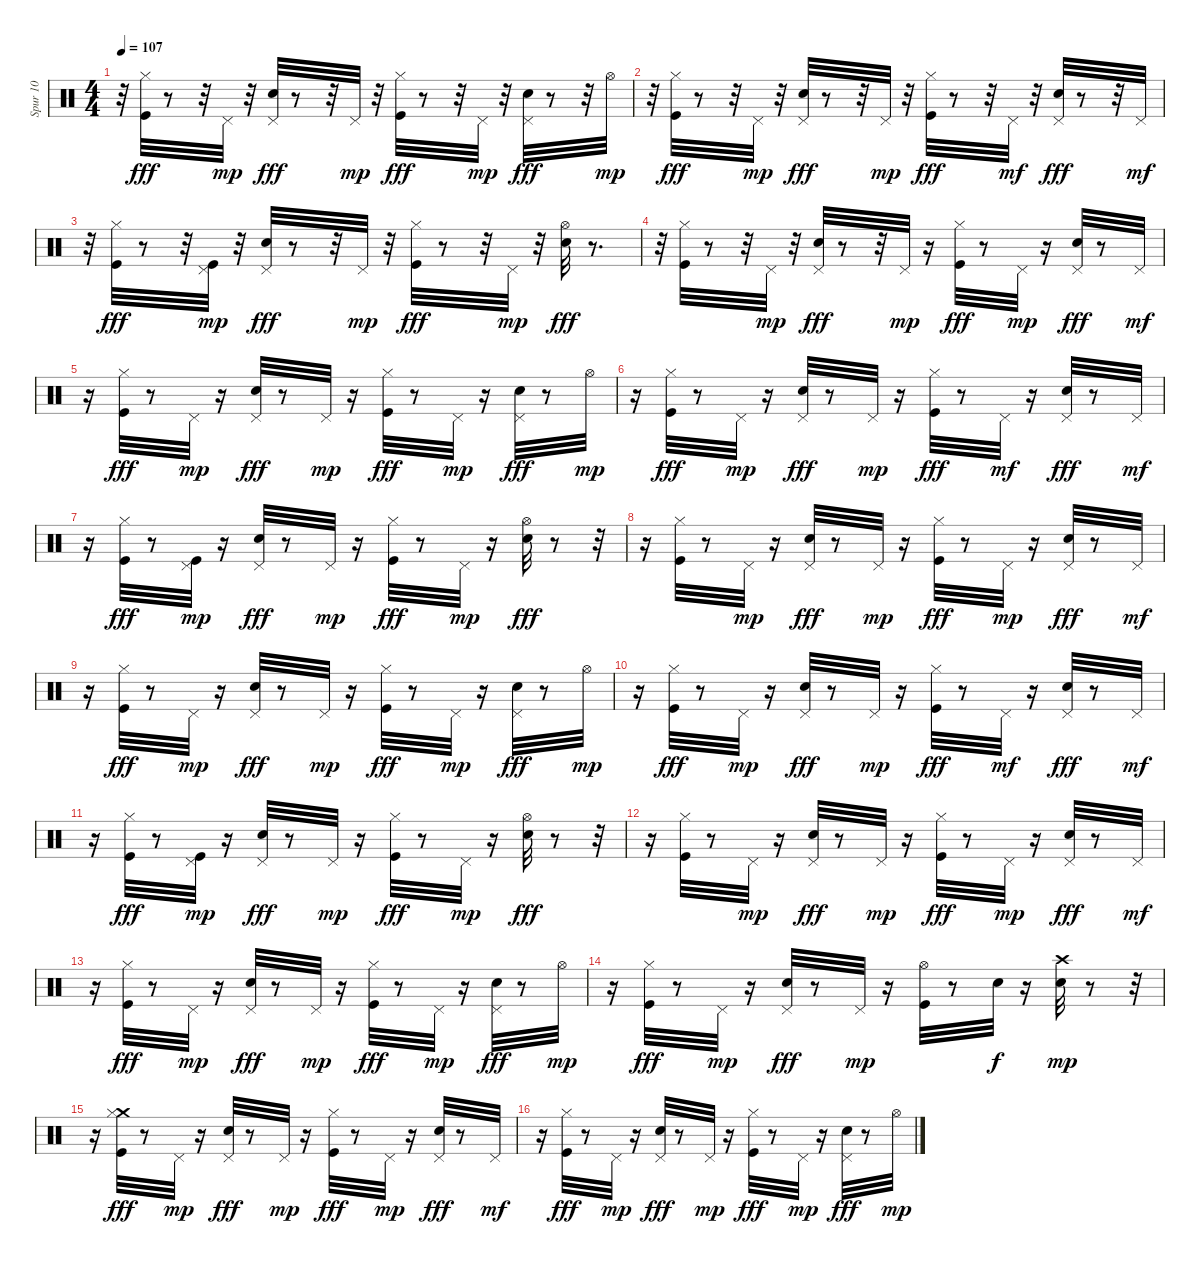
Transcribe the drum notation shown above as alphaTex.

\track ("Spur 10" "Spur 10") {instrument percussion}
\staff {score}
\articulation defaults
\ts (4 4)
\tempo 107
\clef neutral
\ks c
r.32{dy mf} ("Hi-Hat (closed)" "Kick (hit)").32{dy fff} r.8 r.32 "Pedal Hi-Hat (hit)".32{dy mp} r.32 ("Pedal Hi-Hat (hit)" "Snare (hit) 2").32{dy fff} r.8 r.32 "Pedal Hi-Hat (hit)".32{dy mp} r.32 ("Hi-Hat (closed)" "Kick (hit)").32{dy fff} r.8 r.32 "Pedal Hi-Hat (hit)".32{dy mp} r.32 ("Pedal Hi-Hat (hit)" "Snare (hit) 2").32{dy fff} r.8 r.32 "Hi-Hat (open)".32{dy mp} |
r.32 ("Hi-Hat (closed)" "Kick (hit)").32{dy fff} r.8 r.32 "Pedal Hi-Hat (hit)".32{dy mp} r.32 ("Pedal Hi-Hat (hit)" "Snare (hit) 2").32{dy fff} r.8 r.32 "Pedal Hi-Hat (hit)".32{dy mp} r.32 ("Hi-Hat (closed)" "Kick (hit)").32{dy fff} r.8 r.32 "Pedal Hi-Hat (hit)".32{dy mf} r.32 ("Pedal Hi-Hat (hit)" "Snare (hit) 2").32{dy fff} r.8 r.32 "Pedal Hi-Hat (hit)".32{dy mf} |
r.32 ("Hi-Hat (closed)" "Kick (hit)").32{dy fff} r.8 r.32 ("Pedal Hi-Hat (hit)" "Kick (hit)").32{dy mp} r.32 ("Pedal Hi-Hat (hit)" "Snare (hit) 2").32{dy fff} r.8 r.32 "Pedal Hi-Hat (hit)".32{dy mp} r.32 ("Hi-Hat (closed)" "Kick (hit)").32{dy fff} r.8 r.32 "Pedal Hi-Hat (hit)".32{dy mp} r.32 ("Hi-Hat (open)" "Snare (hit) 2").32{dy fff} r.8{d} |
r.32 ("Hi-Hat (closed)" "Kick (hit)").32 r.8 r.32 "Pedal Hi-Hat (hit)".32{dy mp} r.32 ("Pedal Hi-Hat (hit)" "Snare (hit) 2").32{dy fff} r.8 r.32 "Pedal Hi-Hat (hit)".32{dy mp} r.16 ("Hi-Hat (closed)" "Kick (hit)").32{dy fff} r.8 "Pedal Hi-Hat (hit)".32{dy mp} r.16 ("Pedal Hi-Hat (hit)" "Snare (hit) 2").32{dy fff} r.8 "Pedal Hi-Hat (hit)".32{dy mf} |
r.16 ("Hi-Hat (closed)" "Kick (hit)").32{dy fff} r.8 "Pedal Hi-Hat (hit)".32{dy mp} r.16 ("Pedal Hi-Hat (hit)" "Snare (hit) 2").32{dy fff} r.8 "Pedal Hi-Hat (hit)".32{dy mp} r.16 ("Hi-Hat (closed)" "Kick (hit)").32{dy fff} r.8 "Pedal Hi-Hat (hit)".32{dy mp} r.16 ("Pedal Hi-Hat (hit)" "Snare (hit) 2").32{dy fff} r.8 "Hi-Hat (open)".32{dy mp} |
r.16 ("Hi-Hat (closed)" "Kick (hit)").32{dy fff} r.8 "Pedal Hi-Hat (hit)".32{dy mp} r.16 ("Pedal Hi-Hat (hit)" "Snare (hit) 2").32{dy fff} r.8 "Pedal Hi-Hat (hit)".32{dy mp} r.16 ("Hi-Hat (closed)" "Kick (hit)").32{dy fff} r.8 "Pedal Hi-Hat (hit)".32{dy mf} r.16 ("Pedal Hi-Hat (hit)" "Snare (hit) 2").32{dy fff} r.8 "Pedal Hi-Hat (hit)".32{dy mf} |
r.16 ("Hi-Hat (closed)" "Kick (hit)").32{dy fff} r.8 ("Pedal Hi-Hat (hit)" "Kick (hit)").32{dy mp} r.16 ("Pedal Hi-Hat (hit)" "Snare (hit) 2").32{dy fff} r.8 "Pedal Hi-Hat (hit)".32{dy mp} r.16 ("Hi-Hat (closed)" "Kick (hit)").32{dy fff} r.8 "Pedal Hi-Hat (hit)".32{dy mp} r.16 ("Hi-Hat (open)" "Snare (hit) 2").32{dy fff} r.8 r.32 |
r.16 ("Hi-Hat (closed)" "Kick (hit)").32 r.8 "Pedal Hi-Hat (hit)".32{dy mp} r.16 ("Pedal Hi-Hat (hit)" "Snare (hit) 2").32{dy fff} r.8 "Pedal Hi-Hat (hit)".32{dy mp} r.16 ("Hi-Hat (closed)" "Kick (hit)").32{dy fff} r.8 "Pedal Hi-Hat (hit)".32{dy mp} r.16 ("Pedal Hi-Hat (hit)" "Snare (hit) 2").32{dy fff} r.8 "Pedal Hi-Hat (hit)".32{dy mf} |
r.16 ("Hi-Hat (closed)" "Kick (hit)").32{dy fff} r.8 "Pedal Hi-Hat (hit)".32{dy mp} r.16 ("Pedal Hi-Hat (hit)" "Snare (hit) 2").32{dy fff} r.8 "Pedal Hi-Hat (hit)".32{dy mp} r.16 ("Hi-Hat (closed)" "Kick (hit)").32{dy fff} r.8 "Pedal Hi-Hat (hit)".32{dy mp} r.16 ("Pedal Hi-Hat (hit)" "Snare (hit) 2").32{dy fff} r.8 "Hi-Hat (open)".32{dy mp} |
r.16 ("Hi-Hat (closed)" "Kick (hit)").32{dy fff} r.8 "Pedal Hi-Hat (hit)".32{dy mp} r.16 ("Pedal Hi-Hat (hit)" "Snare (hit) 2").32{dy fff} r.8 "Pedal Hi-Hat (hit)".32{dy mp} r.16 ("Hi-Hat (closed)" "Kick (hit)").32{dy fff} r.8 "Pedal Hi-Hat (hit)".32{dy mf} r.16 ("Pedal Hi-Hat (hit)" "Snare (hit) 2").32{dy fff} r.8 "Pedal Hi-Hat (hit)".32{dy mf} |
r.16 ("Hi-Hat (closed)" "Kick (hit)").32{dy fff} r.8 ("Pedal Hi-Hat (hit)" "Kick (hit)").32{dy mp} r.16 ("Pedal Hi-Hat (hit)" "Snare (hit) 2").32{dy fff} r.8 "Pedal Hi-Hat (hit)".32{dy mp} r.16 ("Hi-Hat (closed)" "Kick (hit)").32{dy fff} r.8 "Pedal Hi-Hat (hit)".32{dy mp} r.16 ("Hi-Hat (open)" "Snare (hit) 2").32{dy fff} r.8 r.32 |
r.16 ("Hi-Hat (closed)" "Kick (hit)").32 r.8 "Pedal Hi-Hat (hit)".32{dy mp} r.16 ("Pedal Hi-Hat (hit)" "Snare (hit) 2").32{dy fff} r.8 "Pedal Hi-Hat (hit)".32{dy mp} r.16 ("Hi-Hat (closed)" "Kick (hit)").32{dy fff} r.8 "Pedal Hi-Hat (hit)".32{dy mp} r.16 ("Pedal Hi-Hat (hit)" "Snare (hit) 2").32{dy fff} r.8 "Pedal Hi-Hat (hit)".32{dy mf} |
r.16 ("Hi-Hat (closed)" "Kick (hit)").32{dy fff} r.8 "Pedal Hi-Hat (hit)".32{dy mp} r.16 ("Pedal Hi-Hat (hit)" "Snare (hit) 2").32{dy fff} r.8 "Pedal Hi-Hat (hit)".32{dy mp} r.16 ("Hi-Hat (closed)" "Kick (hit)").32{dy fff} r.8 "Pedal Hi-Hat (hit)".32{dy mp} r.16 ("Pedal Hi-Hat (hit)" "Snare (hit) 2").32{dy fff} r.8 "Hi-Hat (open)".32{dy mp} |
r.16 ("Hi-Hat (closed)" "Kick (hit)").32{dy fff} r.8 "Pedal Hi-Hat (hit)".32{dy mp} r.16 ("Pedal Hi-Hat (hit)" "Snare (hit) 2").32{dy fff} r.8 "Pedal Hi-Hat (hit)".32{dy mp} r.16 ("Kick (hit)" "Hi-Hat (open)").32 r.8 "Snare (hit) 2".32{dy f} r.16 ("Snare (hit) 2" "Crash high (hit)").32{dy mp} r.8 r.32 |
r.16 ("Crash medium (hit)" "Hi-Hat (closed)" "Kick (hit)").32{dy fff} r.8 "Pedal Hi-Hat (hit)".32{dy mp} r.16 ("Pedal Hi-Hat (hit)" "Snare (hit) 2").32{dy fff} r.8 "Pedal Hi-Hat (hit)".32{dy mp} r.16 ("Hi-Hat (closed)" "Kick (hit)").32{dy fff} r.8 "Pedal Hi-Hat (hit)".32{dy mp} r.16 ("Pedal Hi-Hat (hit)" "Snare (hit) 2").32{dy fff} r.8 "Pedal Hi-Hat (hit)".32{dy mf} |
r.16 ("Hi-Hat (closed)" "Kick (hit)").32{dy fff} r.8 "Pedal Hi-Hat (hit)".32{dy mp} r.16 ("Pedal Hi-Hat (hit)" "Snare (hit) 2").32{dy fff} r.8 "Pedal Hi-Hat (hit)".32{dy mp} r.16 ("Hi-Hat (closed)" "Kick (hit)").32{dy fff} r.8 "Pedal Hi-Hat (hit)".32{dy mp} r.16 ("Pedal Hi-Hat (hit)" "Snare (hit) 2").32{dy fff} r.8 "Hi-Hat (open)".32{dy mp}
